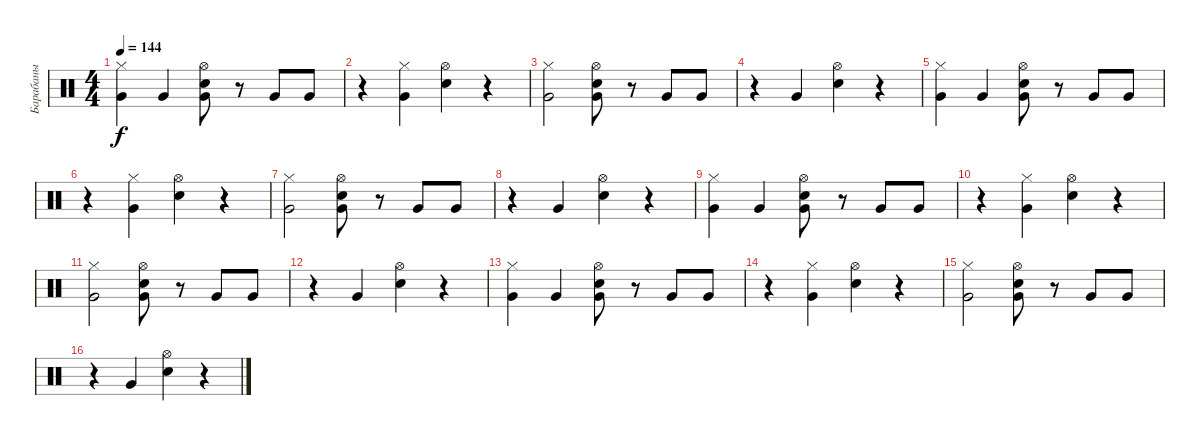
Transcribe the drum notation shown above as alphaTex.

\track ("Барабаны" "Барабаны") {instrument percussion}
\staff {score}
\articulation defaults
\ts (4 4)
\tempo 144
\clef neutral
\ks c
("Hi-Hat (closed)" "Very Low Tom (hit)").4{dy f} "Very Low Tom (hit)".4 ("Electric Snare (hit)" "Hi-Hat (open)" "Very Low Tom (hit)").8 r.8 "Very Low Tom (hit)".8 "Very Low Tom (hit)".8 |
r.4 ("Very Low Tom (hit)" "Hi-Hat (closed)").4 ("Snare (hit) 2" "Hi-Hat (open)").4 r.4 |
("Hi-Hat (closed)" "Very Low Tom (hit)").2 ("Electric Snare (hit)" "Hi-Hat (open)" "Very Low Tom (hit)").8 r.8 "Very Low Tom (hit)".8 "Very Low Tom (hit)".8 |
r.4 "Very Low Tom (hit)".4 ("Snare (hit) 2" "Hi-Hat (open)").4 r.4 |
("Hi-Hat (closed)" "Very Low Tom (hit)").4 "Very Low Tom (hit)".4 ("Electric Snare (hit)" "Hi-Hat (open)" "Very Low Tom (hit)").8 r.8 "Very Low Tom (hit)".8 "Very Low Tom (hit)".8 |
r.4 ("Very Low Tom (hit)" "Hi-Hat (closed)").4 ("Snare (hit) 2" "Hi-Hat (open)").4 r.4 |
("Hi-Hat (closed)" "Very Low Tom (hit)").2 ("Electric Snare (hit)" "Hi-Hat (open)" "Very Low Tom (hit)").8 r.8 "Very Low Tom (hit)".8 "Very Low Tom (hit)".8 |
r.4 "Very Low Tom (hit)".4 ("Snare (hit) 2" "Hi-Hat (open)").4 r.4 |
("Hi-Hat (closed)" "Very Low Tom (hit)").4 "Very Low Tom (hit)".4 ("Electric Snare (hit)" "Hi-Hat (open)" "Very Low Tom (hit)").8 r.8 "Very Low Tom (hit)".8 "Very Low Tom (hit)".8 |
r.4 ("Very Low Tom (hit)" "Hi-Hat (closed)").4 ("Snare (hit) 2" "Hi-Hat (open)").4 r.4 |
("Hi-Hat (closed)" "Very Low Tom (hit)").2 ("Electric Snare (hit)" "Hi-Hat (open)" "Very Low Tom (hit)").8 r.8 "Very Low Tom (hit)".8 "Very Low Tom (hit)".8 |
r.4 "Very Low Tom (hit)".4 ("Snare (hit) 2" "Hi-Hat (open)").4 r.4 |
("Hi-Hat (closed)" "Very Low Tom (hit)").4 "Very Low Tom (hit)".4 ("Electric Snare (hit)" "Hi-Hat (open)" "Very Low Tom (hit)").8 r.8 "Very Low Tom (hit)".8 "Very Low Tom (hit)".8 |
r.4 ("Very Low Tom (hit)" "Hi-Hat (closed)").4 ("Snare (hit) 2" "Hi-Hat (open)").4 r.4 |
("Hi-Hat (closed)" "Very Low Tom (hit)").2 ("Electric Snare (hit)" "Hi-Hat (open)" "Very Low Tom (hit)").8 r.8 "Very Low Tom (hit)".8 "Very Low Tom (hit)".8 |
r.4 "Very Low Tom (hit)".4 ("Snare (hit) 2" "Hi-Hat (open)").4 r.4
